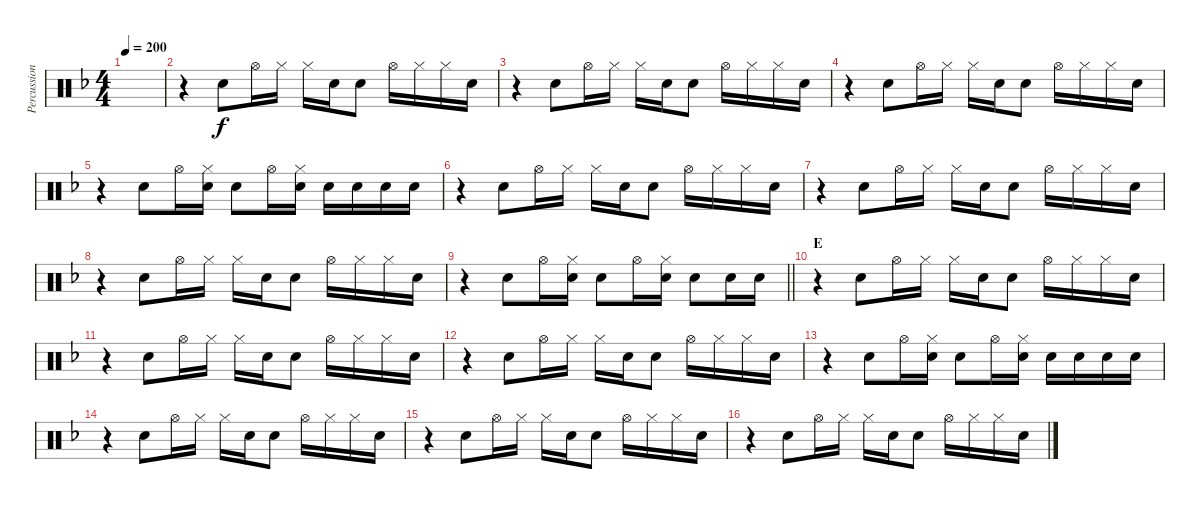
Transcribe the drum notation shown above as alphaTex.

\track ("Percussion (Tainaka Ritsu)" "Percussion") {instrument percussion}
\staff {score}
\articulation defaults
\ts (4 4)
\tempo 200
\clef neutral
\ks f
|
r.4 "Electric Snare (hit)".8 "Hi-Hat (open)".16 "Hi-Hat (closed)".16 "Hi-Hat (closed)".16 "Electric Snare (hit)".16 "Electric Snare (hit)".8 "Hi-Hat (open)".16 "Hi-Hat (closed)".16 "Hi-Hat (closed)".16 "Electric Snare (hit)".16 |
r.4 "Electric Snare (hit)".8 "Hi-Hat (open)".16 "Hi-Hat (closed)".16 "Hi-Hat (closed)".16 "Electric Snare (hit)".16 "Electric Snare (hit)".8 "Hi-Hat (open)".16 "Hi-Hat (closed)".16 "Hi-Hat (closed)".16 "Electric Snare (hit)".16 |
r.4 "Electric Snare (hit)".8 "Hi-Hat (open)".16 "Hi-Hat (closed)".16 "Hi-Hat (closed)".16 "Electric Snare (hit)".16 "Electric Snare (hit)".8 "Hi-Hat (open)".16 "Hi-Hat (closed)".16 "Hi-Hat (closed)".16 "Electric Snare (hit)".16 |
r.4 "Electric Snare (hit)".8 "Hi-Hat (open)".16 ("Hi-Hat (closed)" "Electric Snare (hit)").16 "Electric Snare (hit)".8 "Hi-Hat (open)".16 ("Hi-Hat (closed)" "Electric Snare (hit)").16 "Electric Snare (hit)".16 "Electric Snare (hit)".16 "Electric Snare (hit)".16 "Electric Snare (hit)".16 |
r.4 "Electric Snare (hit)".8 "Hi-Hat (open)".16 "Hi-Hat (closed)".16 "Hi-Hat (closed)".16 "Electric Snare (hit)".16 "Electric Snare (hit)".8 "Hi-Hat (open)".16 "Hi-Hat (closed)".16 "Hi-Hat (closed)".16 "Electric Snare (hit)".16 |
r.4 "Electric Snare (hit)".8 "Hi-Hat (open)".16 "Hi-Hat (closed)".16 "Hi-Hat (closed)".16 "Electric Snare (hit)".16 "Electric Snare (hit)".8 "Hi-Hat (open)".16 "Hi-Hat (closed)".16 "Hi-Hat (closed)".16 "Electric Snare (hit)".16 |
r.4 "Electric Snare (hit)".8 "Hi-Hat (open)".16 "Hi-Hat (closed)".16 "Hi-Hat (closed)".16 "Electric Snare (hit)".16 "Electric Snare (hit)".8 "Hi-Hat (open)".16 "Hi-Hat (closed)".16 "Hi-Hat (closed)".16 "Electric Snare (hit)".16 |
\barLineRight lightlight
r.4 "Electric Snare (hit)".8 "Hi-Hat (open)".16 ("Hi-Hat (closed)" "Electric Snare (hit)").16 "Electric Snare (hit)".8 "Hi-Hat (open)".16 ("Hi-Hat (closed)" "Electric Snare (hit)").16 "Electric Snare (hit)".8 "Electric Snare (hit)".16 "Electric Snare (hit)".16 |
\section ("" "E")
r.4 "Electric Snare (hit)".8 "Hi-Hat (open)".16 "Hi-Hat (closed)".16 "Hi-Hat (closed)".16 "Electric Snare (hit)".16 "Electric Snare (hit)".8 "Hi-Hat (open)".16 "Hi-Hat (closed)".16 "Hi-Hat (closed)".16 "Electric Snare (hit)".16 |
r.4 "Electric Snare (hit)".8 "Hi-Hat (open)".16 "Hi-Hat (closed)".16 "Hi-Hat (closed)".16 "Electric Snare (hit)".16 "Electric Snare (hit)".8 "Hi-Hat (open)".16 "Hi-Hat (closed)".16 "Hi-Hat (closed)".16 "Electric Snare (hit)".16 |
r.4 "Electric Snare (hit)".8 "Hi-Hat (open)".16 "Hi-Hat (closed)".16 "Hi-Hat (closed)".16 "Electric Snare (hit)".16 "Electric Snare (hit)".8 "Hi-Hat (open)".16 "Hi-Hat (closed)".16 "Hi-Hat (closed)".16 "Electric Snare (hit)".16 |
r.4 "Electric Snare (hit)".8 "Hi-Hat (open)".16 ("Hi-Hat (closed)" "Electric Snare (hit)").16 "Electric Snare (hit)".8 "Hi-Hat (open)".16 ("Hi-Hat (closed)" "Electric Snare (hit)").16 "Electric Snare (hit)".16 "Electric Snare (hit)".16 "Electric Snare (hit)".16 "Electric Snare (hit)".16 |
r.4 "Electric Snare (hit)".8 "Hi-Hat (open)".16 "Hi-Hat (closed)".16 "Hi-Hat (closed)".16 "Electric Snare (hit)".16 "Electric Snare (hit)".8 "Hi-Hat (open)".16 "Hi-Hat (closed)".16 "Hi-Hat (closed)".16 "Electric Snare (hit)".16 |
r.4 "Electric Snare (hit)".8 "Hi-Hat (open)".16 "Hi-Hat (closed)".16 "Hi-Hat (closed)".16 "Electric Snare (hit)".16 "Electric Snare (hit)".8 "Hi-Hat (open)".16 "Hi-Hat (closed)".16 "Hi-Hat (closed)".16 "Electric Snare (hit)".16 |
r.4 "Electric Snare (hit)".8 "Hi-Hat (open)".16 "Hi-Hat (closed)".16 "Hi-Hat (closed)".16 "Electric Snare (hit)".16 "Electric Snare (hit)".8 "Hi-Hat (open)".16 "Hi-Hat (closed)".16 "Hi-Hat (closed)".16 "Electric Snare (hit)".16
